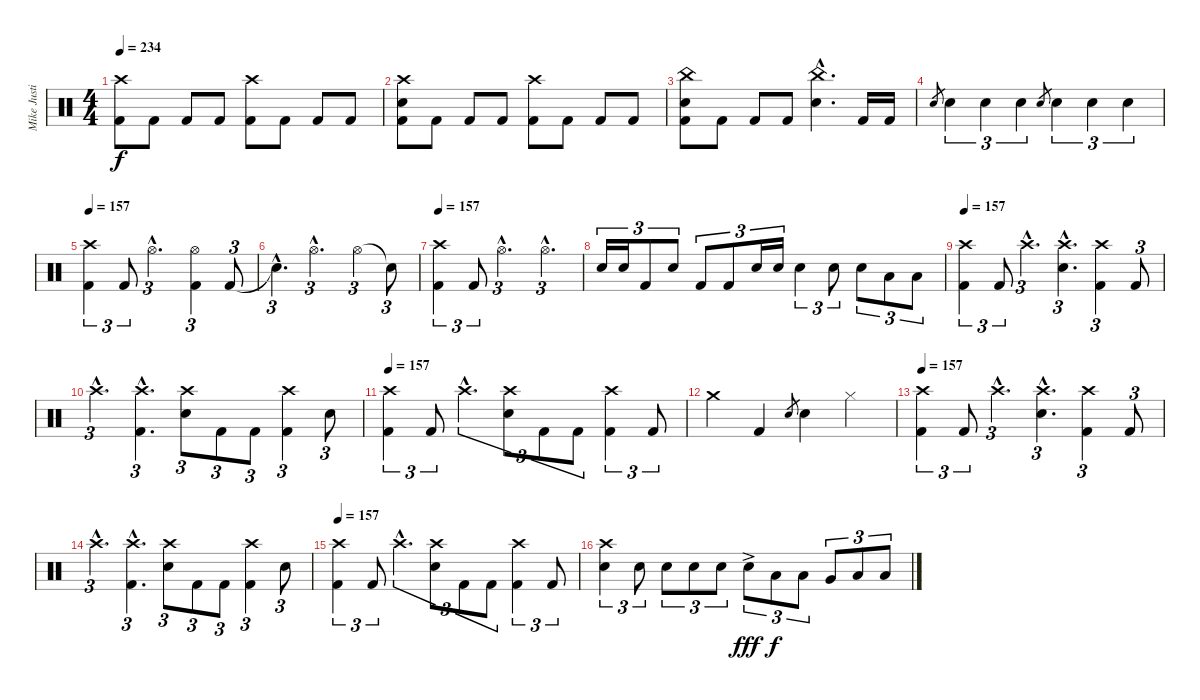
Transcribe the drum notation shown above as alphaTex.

\track ("Mike Justian (Drums)" "Mike Justi") {instrument percussion}
\staff {score}
\articulation defaults
\ts (4 4)
\tempo 234
\clef neutral
\ks c
("Crash high (hit)" "Kick (hit) 2").8{dy f} "Kick (hit) 2".8 "Kick (hit) 2".8 "Kick (hit) 2".8 ("Crash high (hit)" "Kick (hit) 2").8 "Kick (hit) 2".8 "Kick (hit) 2".8 "Kick (hit) 2".8 |
("Snare (hit) 2" "Crash high (hit)" "Kick (hit) 2").8 "Kick (hit) 2".8 "Kick (hit) 2".8 "Kick (hit) 2".8 ("Crash high (hit)" "Kick (hit) 2").8 "Kick (hit) 2".8 "Kick (hit) 2".8 "Kick (hit) 2".8 |
("China (hit)" "Snare (hit) 2" "Kick (hit) 2").8 "Kick (hit) 2".8 "Kick (hit) 2".8 "Kick (hit) 2".8 ("China (hit)"{hac} "Snare (hit) 2"{hac}).4{d} "Kick (hit) 2".16 "Kick (hit) 2".16 |
"Snare (hit) 2".8{gr} "Snare (hit) 2".4{tu (3 2)} "Snare (hit) 2".4{tu (3 2)} "Snare (hit) 2".4{tu (3 2)} "Snare (hit) 2".8{gr} "Snare (hit) 2".4{tu (3 2)} "Snare (hit) 2".4{tu (3 2)} "Snare (hit) 2".4{tu (3 2)} |
\tempo 157
("Crash high (hit)" "Kick (hit) 2").4{tu (3 2)} "Kick (hit) 2".8{tu (3 2)} "Hi-Hat (open)"{hac}.2{d tu (3 2)} ("Hi-Hat (open)" "Kick (hit) 2").4{tu (3 2)} "Kick (hit) 2".8{tu (3 2)} |
"Snare (hit)"{hac t}.4{d tu (3 2)} "Hi-Hat (open)"{hac}.2{d tu (3 2)} "Hi-Hat (open)".4{tu (3 2)} "Snare (hit)"{t}.8{tu (3 2)} |
\tempo 157
("Crash high (hit)" "Kick (hit) 2").4{tu (3 2)} "Kick (hit) 2".8{tu (3 2)} "Hi-Hat (open)"{hac}.2{d tu (3 2)} "Hi-Hat (open)"{hac}.4{d tu (3 2)} |
"Snare (hit) 2".16{tu (3 2)} "Snare (hit) 2".16{tu (3 2)} "Kick (hit) 2".8{tu (3 2)} "Snare (hit) 2".8{tu (3 2)} "Kick (hit) 2".8{tu (3 2)} "Kick (hit) 2".8{tu (3 2)} "Snare (hit) 2".16{tu (3 2)} "Snare (hit) 2".16{tu (3 2)} "Snare (hit) 2".4{tu (3 2)} "Snare (hit) 2".8{tu (3 2)} "Snare (hit) 2".8{tu (3 2)} "Low Tom (hit)".8{tu (3 2)} "Low Floor Tom (hit)".8{tu (3 2)} |
\tempo 157
("Crash high (hit)" "Kick (hit) 2").4{tu (3 2)} "Kick (hit) 2".8{tu (3 2)} "Crash high (hit)"{hac}.4{d tu (3 2)} ("Crash high (hit)"{hac} "Snare (hit) 2"{hac}).4{d tu (3 2)} ("Crash high (hit)" "Kick (hit) 2").4{tu (3 2)} "Kick (hit) 2".8{tu (3 2)} |
"Crash high (hit)"{hac}.4{d tu (3 2)} ("Crash high (hit)"{hac} "Kick (hit) 2"{hac}).4{d tu (3 2)} ("Crash high (hit)" "Snare (hit) 2").8{tu (3 2)} "Kick (hit) 2".8{tu (3 2)} "Kick (hit) 2".8{tu (3 2)} ("Crash high (hit)" "Kick (hit) 2").4{tu (3 2)} "Snare (hit) 2".8{tu (3 2)} |
\tempo 157
("Crash high (hit)" "Kick (hit) 2").4{tu (3 2)} "Kick (hit) 2".8{tu (3 2)} "Crash high (hit)"{hac}.4{d tu (3 2)} ("Crash high (hit)" "Snare (hit) 2").8{tu (3 2)} "Kick (hit) 2".8{tu (3 2)} "Kick (hit) 2".8{tu (3 2)} ("Crash high (hit)" "Kick (hit) 2").4{tu (3 2)} "Kick (hit) 2".8{tu (3 2)} |
"Crash medium (hit)".4 "Kick (hit) 2".4 "Snare (hit) 2".8{gr} "Snare (hit) 2".4 "Hi-Hat (closed)".4 |
\tempo 157
("Crash high (hit)" "Kick (hit) 2").4{tu (3 2)} "Kick (hit) 2".8{tu (3 2)} "Crash high (hit)"{hac}.4{d tu (3 2)} ("Crash high (hit)"{hac} "Snare (hit) 2"{hac}).4{d tu (3 2)} ("Crash high (hit)" "Kick (hit) 2").4{tu (3 2)} "Kick (hit) 2".8{tu (3 2)} |
"Crash high (hit)"{hac}.4{d tu (3 2)} ("Crash high (hit)"{hac} "Kick (hit) 2"{hac}).4{d tu (3 2)} ("Crash high (hit)" "Snare (hit) 2").8{tu (3 2)} "Kick (hit) 2".8{tu (3 2)} "Kick (hit) 2".8{tu (3 2)} ("Crash high (hit)" "Kick (hit) 2").4{tu (3 2)} "Snare (hit) 2".8{tu (3 2)} |
\tempo 157
("Crash high (hit)" "Kick (hit) 2").4{tu (3 2)} "Kick (hit) 2".8{tu (3 2)} "Crash high (hit)"{hac}.4{d tu (3 2)} ("Crash high (hit)" "Snare (hit) 2").8{tu (3 2)} "Kick (hit) 2".8{tu (3 2)} "Kick (hit) 2".8{tu (3 2)} ("Crash high (hit)" "Kick (hit) 2").4{tu (3 2)} "Kick (hit) 2".8{tu (3 2)} |
("Snare (hit) 2" "Crash high (hit)").4{tu (3 2)} "Snare (hit) 2".8{tu (3 2)} "Snare (hit) 2".8{tu (3 2)} "Snare (hit) 2".8{tu (3 2)} "Snare (hit) 2".8{tu (3 2)} "Snare (hit) 2"{ac}.8{tu (3 2) dy fff} "Low Tom (hit)".8{tu (3 2) dy f} "Low Tom (hit)".8{tu (3 2)} "Very Low Tom (hit)".8{tu (3 2)} "Low Floor Tom (hit)".8{tu (3 2)} "Low Floor Tom (hit)".8{tu (3 2)}
